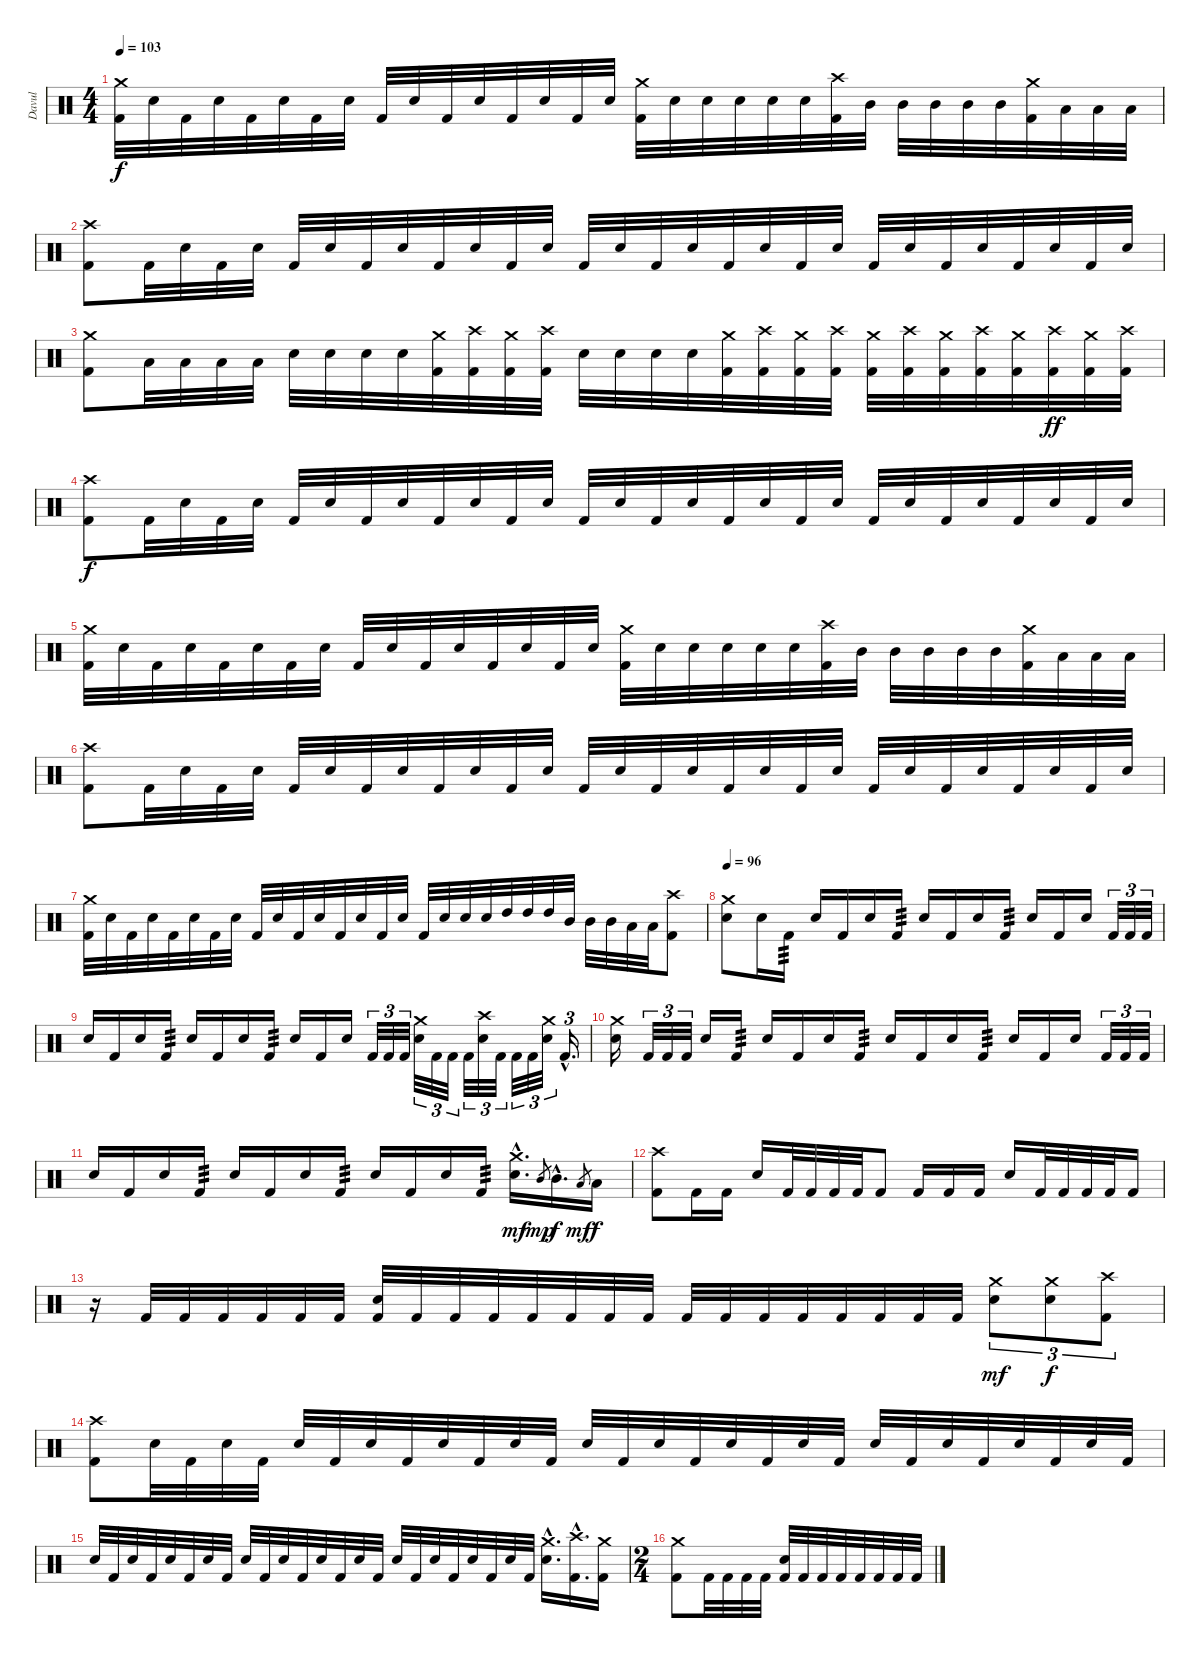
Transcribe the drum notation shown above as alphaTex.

\track ("Davul" "Davul") {instrument percussion}
\staff {score}
\articulation defaults
\ts (4 4)
\tempo 103
\clef neutral
\ks c
("Crash medium (hit)" "Kick (hit) 2").32{dy f} "Electric Snare (hit)".32 "Kick (hit) 2".32 "Electric Snare (hit)".32 "Kick (hit) 2".32 "Electric Snare (hit)".32 "Kick (hit) 2".32 "Electric Snare (hit)".32 "Kick (hit) 2".32 "Electric Snare (hit)".32 "Kick (hit) 2".32 "Electric Snare (hit)".32 "Kick (hit) 2".32 "Electric Snare (hit)".32 "Kick (hit) 2".32 "Electric Snare (hit)".32 ("Crash medium (hit)" "Kick (hit) 2").32 "Electric Snare (hit)".32 "Electric Snare (hit)".32 "Electric Snare (hit)".32 "Electric Snare (hit)".32 "Electric Snare (hit)".32 ("Crash high (hit)" "Kick (hit) 2").32 "Mid Tom (hit)".32 "Mid Tom (hit)".32 "Mid Tom (hit)".32 "Mid Tom (hit)".32 "Mid Tom (hit)".32 ("Crash medium (hit)" "Kick (hit) 2").32 "Low Tom (hit)".32 "Low Tom (hit)".32 "Low Tom (hit)".32 |
("Crash high (hit)" "Kick (hit) 2").8 "Kick (hit) 2".32 "Electric Snare (hit)".32 "Kick (hit) 2".32 "Electric Snare (hit)".32 "Kick (hit) 2".32 "Electric Snare (hit)".32 "Kick (hit) 2".32 "Electric Snare (hit)".32 "Kick (hit) 2".32 "Electric Snare (hit)".32 "Kick (hit) 2".32 "Electric Snare (hit)".32 "Kick (hit) 2".32 "Electric Snare (hit)".32 "Kick (hit) 2".32 "Electric Snare (hit)".32 "Kick (hit) 2".32 "Electric Snare (hit)".32 "Kick (hit) 2".32 "Electric Snare (hit)".32 "Kick (hit) 2".32 "Electric Snare (hit)".32 "Kick (hit) 2".32 "Electric Snare (hit)".32 "Kick (hit) 2".32 "Electric Snare (hit)".32 "Kick (hit) 2".32 "Electric Snare (hit)".32 |
("Crash medium (hit)" "Kick (hit) 2").8 "Low Tom (hit)".32 "Low Tom (hit)".32 "Low Tom (hit)".32 "Low Tom (hit)".32 "Electric Snare (hit)".32 "Electric Snare (hit)".32 "Electric Snare (hit)".32 "Electric Snare (hit)".32 ("Crash medium (hit)" "Kick (hit) 2").32 ("Crash high (hit)" "Kick (hit) 2").32 ("Crash medium (hit)" "Kick (hit) 2").32 ("Crash high (hit)" "Kick (hit) 2").32 "Electric Snare (hit)".32 "Electric Snare (hit)".32 "Electric Snare (hit)".32 "Electric Snare (hit)".32 ("Crash medium (hit)" "Kick (hit) 2").32 ("Crash high (hit)" "Kick (hit) 2").32 ("Crash medium (hit)" "Kick (hit) 2").32 ("Crash high (hit)" "Kick (hit) 2").32 ("Crash medium (hit)" "Kick (hit) 2").32 ("Crash high (hit)" "Kick (hit) 2").32 ("Crash medium (hit)" "Kick (hit) 2").32 ("Crash high (hit)" "Kick (hit) 2").32 ("Crash medium (hit)" "Kick (hit) 2").32 ("Crash high (hit)" "Kick (hit) 2").32{dy ff} ("Crash medium (hit)" "Kick (hit) 2").32 ("Crash high (hit)" "Kick (hit) 2").32 |
("Crash high (hit)" "Kick (hit) 2").8{dy f} "Kick (hit) 2".32 "Electric Snare (hit)".32 "Kick (hit) 2".32 "Electric Snare (hit)".32 "Kick (hit) 2".32 "Electric Snare (hit)".32 "Kick (hit) 2".32 "Electric Snare (hit)".32 "Kick (hit) 2".32 "Electric Snare (hit)".32 "Kick (hit) 2".32 "Electric Snare (hit)".32 "Kick (hit) 2".32 "Electric Snare (hit)".32 "Kick (hit) 2".32 "Electric Snare (hit)".32 "Kick (hit) 2".32 "Electric Snare (hit)".32 "Kick (hit) 2".32 "Electric Snare (hit)".32 "Kick (hit) 2".32 "Electric Snare (hit)".32 "Kick (hit) 2".32 "Electric Snare (hit)".32 "Kick (hit) 2".32 "Electric Snare (hit)".32 "Kick (hit) 2".32 "Electric Snare (hit)".32 |
("Crash medium (hit)" "Kick (hit) 2").32 "Electric Snare (hit)".32 "Kick (hit) 2".32 "Electric Snare (hit)".32 "Kick (hit) 2".32 "Electric Snare (hit)".32 "Kick (hit) 2".32 "Electric Snare (hit)".32 "Kick (hit) 2".32 "Electric Snare (hit)".32 "Kick (hit) 2".32 "Electric Snare (hit)".32 "Kick (hit) 2".32 "Electric Snare (hit)".32 "Kick (hit) 2".32 "Electric Snare (hit)".32 ("Crash medium (hit)" "Kick (hit) 2").32 "Electric Snare (hit)".32 "Electric Snare (hit)".32 "Electric Snare (hit)".32 "Electric Snare (hit)".32 "Electric Snare (hit)".32 ("Crash high (hit)" "Kick (hit) 2").32 "Mid Tom (hit)".32 "Mid Tom (hit)".32 "Mid Tom (hit)".32 "Mid Tom (hit)".32 "Mid Tom (hit)".32 ("Crash medium (hit)" "Kick (hit) 2").32 "Low Tom (hit)".32 "Low Tom (hit)".32 "Low Tom (hit)".32 |
("Crash high (hit)" "Kick (hit) 2").8 "Kick (hit) 2".32 "Electric Snare (hit)".32 "Kick (hit) 2".32 "Electric Snare (hit)".32 "Kick (hit) 2".32 "Electric Snare (hit)".32 "Kick (hit) 2".32 "Electric Snare (hit)".32 "Kick (hit) 2".32 "Electric Snare (hit)".32 "Kick (hit) 2".32 "Electric Snare (hit)".32 "Kick (hit) 2".32 "Electric Snare (hit)".32 "Kick (hit) 2".32 "Electric Snare (hit)".32 "Kick (hit) 2".32 "Electric Snare (hit)".32 "Kick (hit) 2".32 "Electric Snare (hit)".32 "Kick (hit) 2".32 "Electric Snare (hit)".32 "Kick (hit) 2".32 "Electric Snare (hit)".32 "Kick (hit) 2".32 "Electric Snare (hit)".32 "Kick (hit) 2".32 "Electric Snare (hit)".32 |
("Crash medium (hit)" "Kick (hit) 2").32 "Electric Snare (hit)".32 "Kick (hit) 2".32 "Electric Snare (hit)".32 "Kick (hit) 2".32 "Electric Snare (hit)".32 "Kick (hit) 2".32 "Electric Snare (hit)".32 "Kick (hit) 2".32 "Electric Snare (hit)".32 "Kick (hit) 2".32 "Electric Snare (hit)".32 "Kick (hit) 2".32 "Electric Snare (hit)".32 "Kick (hit) 2".32 "Electric Snare (hit)".32 "Kick (hit) 2".32 "Electric Snare (hit)".32 "Electric Snare (hit)".32 "Electric Snare (hit)".32 "High Tom (hit)".32 "High Tom (hit)".32 "High Tom (hit)".32 "Mid Tom (hit)".32 "Mid Tom (hit)".32 "Mid Tom (hit)".32 "Low Tom (hit)".32 "Low Tom (hit)".32 ("Crash high (hit)" "Kick (hit) 2").8 |
\section ("" "")
\tempo 96
("Crash medium (hit)" "Electric Snare (hit)").8 "Electric Snare (hit)".16 "Kick (hit) 2".16{tp 3} "Electric Snare (hit)".16 "Kick (hit) 2".16 "Electric Snare (hit)".16 "Kick (hit) 2".16{tp 3} "Electric Snare (hit)".16 "Kick (hit) 2".16 "Electric Snare (hit)".16 "Kick (hit) 2".16{tp 3} "Electric Snare (hit)".16 "Kick (hit) 2".16 "Electric Snare (hit)".16 "Kick (hit) 2".32{tu (3 2)} "Kick (hit) 2".32{tu (3 2)} "Kick (hit) 2".32{tu (3 2)} |
"Electric Snare (hit)".16 "Kick (hit) 2".16 "Electric Snare (hit)".16 "Kick (hit) 2".16{tp 3} "Electric Snare (hit)".16 "Kick (hit) 2".16 "Electric Snare (hit)".16 "Kick (hit) 2".16{tp 3} "Electric Snare (hit)".16 "Kick (hit) 2".16 "Electric Snare (hit)".16 "Kick (hit) 2".32{tu (3 2)} "Kick (hit) 2".32{tu (3 2)} "Kick (hit) 2".32{tu (3 2)} ("Crash medium (hit)" "Electric Snare (hit)").32{tu (3 2)} "Kick (hit) 2".32{tu (3 2)} "Kick (hit) 2".32{tu (3 2)} "Kick (hit) 2".32{tu (3 2)} ("Crash high (hit)" "Electric Snare (hit)").32{tu (3 2)} "Kick (hit) 2".32{tu (3 2)} "Kick (hit) 2".32{tu (3 2)} "Kick (hit) 2".32{tu (3 2)} ("Crash medium (hit)" "Electric Snare (hit)").32{tu (3 2)} "Kick (hit) 2"{hac}.16{d tu (3 2)} |
("Crash medium (hit)" "Electric Snare (hit)").16 "Kick (hit) 2".32{tu (3 2)} "Kick (hit) 2".32{tu (3 2)} "Kick (hit) 2".32{tu (3 2)} "Electric Snare (hit)".16 "Kick (hit) 2".16{tp 3} "Electric Snare (hit)".16 "Kick (hit) 2".16 "Electric Snare (hit)".16 "Kick (hit) 2".16{tp 3} "Electric Snare (hit)".16 "Kick (hit) 2".16 "Electric Snare (hit)".16 "Kick (hit) 2".16{tp 3} "Electric Snare (hit)".16 "Kick (hit) 2".16 "Electric Snare (hit)".16 "Kick (hit) 2".32{tu (3 2)} "Kick (hit) 2".32{tu (3 2)} "Kick (hit) 2".32{tu (3 2)} |
"Electric Snare (hit)".16 "Kick (hit) 2".16 "Electric Snare (hit)".16 "Kick (hit) 2".16{tp 3} "Electric Snare (hit)".16 "Kick (hit) 2".16 "Electric Snare (hit)".16 "Kick (hit) 2".16{tp 3} "Electric Snare (hit)".16 "Kick (hit) 2".16 "Electric Snare (hit)".16 "Kick (hit) 2".16{tp 3} ("Crash medium (hit)"{hac} "Electric Snare (hit)"{hac}).16{d dy mf} "Mid Tom (hit)".8{gr dy mp} "Mid Tom (hit)"{hac}.16{d dy f} "Low Tom (hit)".8{gr dy mf} "Low Tom (hit)".16{dy f} |
("Crash high (hit)" "Kick (hit) 2").8 "Kick (hit) 2".16 "Kick (hit) 2".16 "Electric Snare (hit)".16 "Kick (hit) 2".32 "Kick (hit) 2".32 "Kick (hit) 2".32 "Kick (hit) 2".32 "Kick (hit) 2".8 "Kick (hit) 2".16 "Kick (hit) 2".16 "Kick (hit) 2".16 "Electric Snare (hit)".16 "Kick (hit) 2".32 "Kick (hit) 2".32 "Kick (hit) 2".32 "Kick (hit) 2".32 "Kick (hit) 2".16 |
r.16 "Kick (hit) 2".32 "Kick (hit) 2".32 "Kick (hit) 2".32 "Kick (hit) 2".32 "Kick (hit) 2".32 "Kick (hit) 2".32 ("Electric Snare (hit)" "Kick (hit) 2").32 "Kick (hit) 2".32 "Kick (hit) 2".32 "Kick (hit) 2".32 "Kick (hit) 2".32 "Kick (hit) 2".32 "Kick (hit) 2".32 "Kick (hit) 2".32 "Kick (hit) 2".32 "Kick (hit) 2".32 "Kick (hit) 2".32 "Kick (hit) 2".32 "Kick (hit) 2".32 "Kick (hit) 2".32 "Kick (hit) 2".32 "Kick (hit) 2".32 ("Crash medium (hit)" "Electric Snare (hit)").8{tu (3 2) dy mf} ("Crash medium (hit)" "Electric Snare (hit)").8{tu (3 2) dy f} ("Crash high (hit)" "Kick (hit) 2").8{tu (3 2)} |
("Crash high (hit)" "Kick (hit) 2").8 "Electric Snare (hit)".32 "Kick (hit) 2".32 "Electric Snare (hit)".32 "Kick (hit) 2".32 "Electric Snare (hit)".32 "Kick (hit) 2".32 "Electric Snare (hit)".32 "Kick (hit) 2".32 "Electric Snare (hit)".32 "Kick (hit) 2".32 "Electric Snare (hit)".32 "Kick (hit) 2".32 "Electric Snare (hit)".32 "Kick (hit) 2".32 "Electric Snare (hit)".32 "Kick (hit) 2".32 "Electric Snare (hit)".32 "Kick (hit) 2".32 "Electric Snare (hit)".32 "Kick (hit) 2".32 "Electric Snare (hit)".32 "Kick (hit) 2".32 "Electric Snare (hit)".32 "Kick (hit) 2".32 "Electric Snare (hit)".32 "Kick (hit) 2".32 "Electric Snare (hit)".32 "Kick (hit) 2".32 |
"Electric Snare (hit)".32 "Kick (hit) 2".32 "Electric Snare (hit)".32 "Kick (hit) 2".32 "Electric Snare (hit)".32 "Kick (hit) 2".32 "Electric Snare (hit)".32 "Kick (hit) 2".32 "Electric Snare (hit)".32 "Kick (hit) 2".32 "Electric Snare (hit)".32 "Kick (hit) 2".32 "Electric Snare (hit)".32 "Kick (hit) 2".32 "Electric Snare (hit)".32 "Kick (hit) 2".32 "Electric Snare (hit)".32 "Kick (hit) 2".32 "Electric Snare (hit)".32 "Kick (hit) 2".32 "Electric Snare (hit)".32 "Kick (hit) 2".32 "Electric Snare (hit)".32 "Kick (hit) 2".32 ("Crash medium (hit)"{hac} "Electric Snare (hit)"{hac}).16{d} ("Crash high (hit)"{hac} "Kick (hit) 2"{hac}).16{d} ("Crash medium (hit)" "Kick (hit) 2").16 |
\ts (2 4)
("Crash medium (hit)" "Kick (hit) 2").8 "Kick (hit) 2".32 "Kick (hit) 2".32 "Kick (hit) 2".32 "Kick (hit) 2".32 ("Electric Snare (hit)" "Kick (hit) 2").32 "Kick (hit) 2".32 "Kick (hit) 2".32 "Kick (hit) 2".32 "Kick (hit) 2".32 "Kick (hit) 2".32 "Kick (hit) 2".32 "Kick (hit) 2".32
